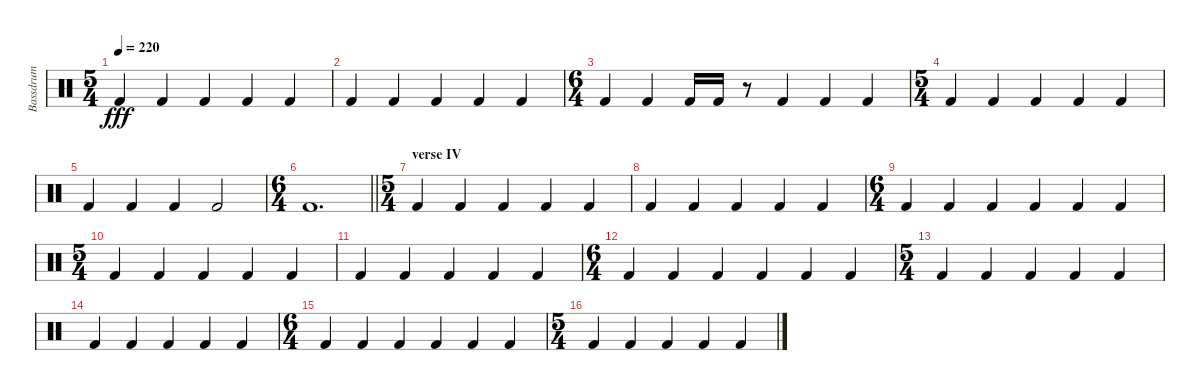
\track ("Bassdrum" "Bassdrum") {instrument percussion}
\staff {score}
\articulation defaults
\ts (5 4)
\tempo 220
\clef neutral
\ks c "Kick (hit) 2".4{dy fff} "Kick (hit) 2".4 "Kick (hit) 2".4 "Kick (hit) 2".4 "Kick (hit) 2".4
|
"Kick (hit) 2".4 "Kick (hit) 2".4 "Kick (hit) 2".4 "Kick (hit) 2".4 "Kick (hit) 2".4 |
\ts (6 4)
"Kick (hit) 2".4 "Kick (hit) 2".4 "Kick (hit) 2".16 "Kick (hit) 2".16 r.8 "Kick (hit) 2".4 "Kick (hit) 2".4 "Kick (hit) 2".4 |
\ts (5 4)
"Kick (hit) 2".4 "Kick (hit) 2".4 "Kick (hit) 2".4 "Kick (hit) 2".4 "Kick (hit) 2".4 |
"Kick (hit) 2".4 "Kick (hit) 2".4 "Kick (hit) 2".4 "Kick (hit) 2".2 |
\ts (6 4)
\barLineRight lightlight "Kick (hit) 2".1{d}
|
\ts (5 4)
\section ("" "verse IV")
"Kick (hit) 2".4 "Kick (hit) 2".4 "Kick (hit) 2".4 "Kick (hit) 2".4 "Kick (hit) 2".4 |
"Kick (hit) 2".4 "Kick (hit) 2".4 "Kick (hit) 2".4 "Kick (hit) 2".4 "Kick (hit) 2".4 |
\ts (6 4)
"Kick (hit) 2".4 "Kick (hit) 2".4 "Kick (hit) 2".4 "Kick (hit) 2".4 "Kick (hit) 2".4 "Kick (hit) 2".4 |
\ts (5 4)
"Kick (hit) 2".4 "Kick (hit) 2".4 "Kick (hit) 2".4 "Kick (hit) 2".4 "Kick (hit) 2".4 |
"Kick (hit) 2".4 "Kick (hit) 2".4 "Kick (hit) 2".4 "Kick (hit) 2".4 "Kick (hit) 2".4 |
\ts (6 4)
"Kick (hit) 2".4 "Kick (hit) 2".4 "Kick (hit) 2".4 "Kick (hit) 2".4 "Kick (hit) 2".4 "Kick (hit) 2".4 |
\ts (5 4)
"Kick (hit) 2".4 "Kick (hit) 2".4 "Kick (hit) 2".4 "Kick (hit) 2".4 "Kick (hit) 2".4 |
"Kick (hit) 2".4 "Kick (hit) 2".4 "Kick (hit) 2".4 "Kick (hit) 2".4 "Kick (hit) 2".4 |
\ts (6 4)
"Kick (hit) 2".4 "Kick (hit) 2".4 "Kick (hit) 2".4 "Kick (hit) 2".4 "Kick (hit) 2".4 "Kick (hit) 2".4 |
\ts (5 4)
"Kick (hit) 2".4 "Kick (hit) 2".4 "Kick (hit) 2".4 "Kick (hit) 2".4 "Kick (hit) 2".4
